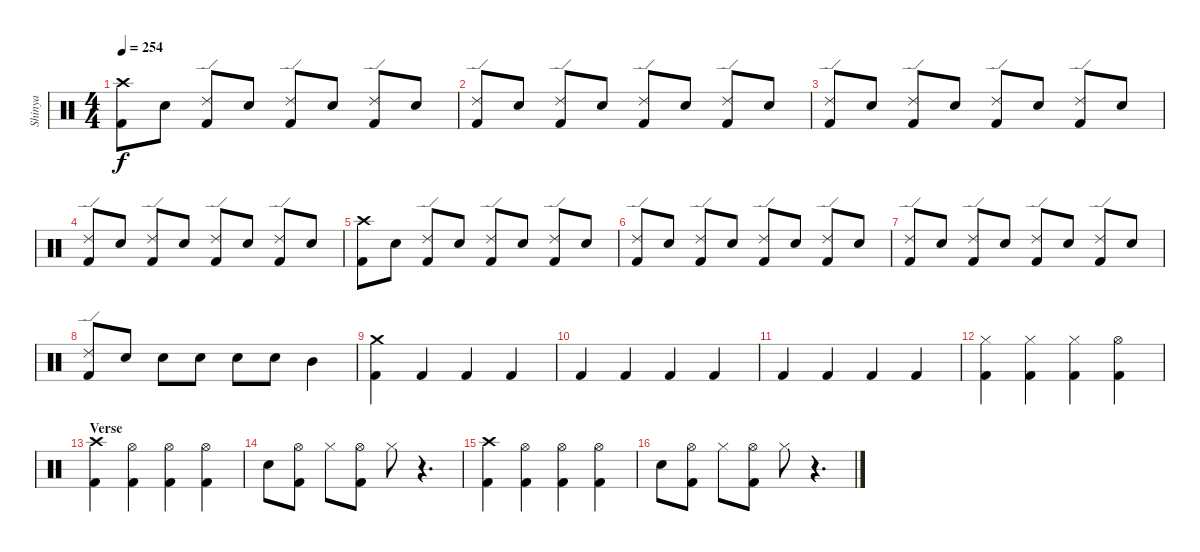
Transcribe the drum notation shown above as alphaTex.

\track ("Shinya" "Shinya") {instrument percussion}
\staff {score}
\articulation defaults
\ts (4 4)
\tempo 254
\clef neutral
\ks c
("Crash high (hit)" "Kick (hit) 2").8{dy f} "Electric Snare (hit)".8 ("Ride (edge) 2" "Kick (hit) 2").8 "Electric Snare (hit)".8 ("Ride (edge) 2" "Kick (hit) 2").8 "Electric Snare (hit)".8 ("Ride (edge) 2" "Kick (hit) 2").8 "Electric Snare (hit)".8 |
("Ride (edge) 2" "Kick (hit) 2").8 "Electric Snare (hit)".8 ("Ride (edge) 2" "Kick (hit) 2").8 "Electric Snare (hit)".8 ("Ride (edge) 2" "Kick (hit) 2").8 "Electric Snare (hit)".8 ("Kick (hit) 2" "Ride (edge) 2").8 "Electric Snare (hit)".8 |
("Ride (edge) 2" "Kick (hit) 2").8 "Electric Snare (hit)".8 ("Kick (hit) 2" "Ride (edge) 2").8 "Electric Snare (hit)".8 ("Ride (edge) 2" "Kick (hit) 2").8 "Electric Snare (hit)".8 ("Ride (edge) 2" "Kick (hit) 2").8 "Electric Snare (hit)".8 |
("Ride (edge) 2" "Kick (hit) 2").8 "Electric Snare (hit)".8 ("Kick (hit) 2" "Ride (edge) 2").8 "Electric Snare (hit)".8 ("Ride (edge) 2" "Kick (hit) 2").8 "Electric Snare (hit)".8 ("Ride (edge) 2" "Kick (hit) 2").8 "Electric Snare (hit)".8 |
("Crash high (hit)" "Kick (hit) 2").8 "Electric Snare (hit)".8 ("Ride (edge) 2" "Kick (hit) 2").8 "Electric Snare (hit)".8 ("Ride (edge) 2" "Kick (hit) 2").8 "Electric Snare (hit)".8 ("Ride (edge) 2" "Kick (hit) 2").8 "Electric Snare (hit)".8 |
("Ride (edge) 2" "Kick (hit) 2").8 "Electric Snare (hit)".8 ("Ride (edge) 2" "Kick (hit) 2").8 "Electric Snare (hit)".8 ("Ride (edge) 2" "Kick (hit) 2").8 "Electric Snare (hit)".8 ("Ride (edge) 2" "Kick (hit) 2").8 "Electric Snare (hit)".8 |
("Kick (hit) 2" "Ride (edge) 2").8 "Electric Snare (hit)".8 ("Kick (hit) 2" "Ride (edge) 2").8 "Electric Snare (hit)".8 ("Ride (edge) 2" "Kick (hit) 2").8 "Electric Snare (hit)".8 ("Kick (hit) 2" "Ride (edge) 2").8 "Electric Snare (hit)".8 |
("Kick (hit) 2" "Ride (edge) 2").8 "Electric Snare (hit)".8 "Electric Snare (hit)".8 "Electric Snare (hit)".8 "Electric Snare (hit)".8 "Electric Snare (hit)".8 "Mid Tom (hit)".4 |
("Kick (hit) 2" "Crash medium (hit)").4 "Kick (hit) 2".4 "Kick (hit) 2".4 "Kick (hit) 2".4 |
"Kick (hit) 2".4 "Kick (hit) 2".4 "Kick (hit) 2".4 "Kick (hit) 2".4 |
"Kick (hit) 2".4 "Kick (hit) 2".4 "Kick (hit) 2".4 "Kick (hit) 2".4 |
("Kick (hit) 2" "Hi-Hat (closed)").4 ("Hi-Hat (closed)" "Kick (hit) 2").4 ("Hi-Hat (closed)" "Kick (hit) 2").4 ("Hi-Hat (open)" "Kick (hit) 2").4 |
\section ("" "Verse")
("Kick (hit) 2" "Crash high (hit)").4 ("Hi-Hat (open)" "Kick (hit) 2").4 ("Hi-Hat (open)" "Kick (hit) 2").4 ("Hi-Hat (open)" "Kick (hit) 2").4 |
"Electric Snare (hit)".8 ("Hi-Hat (open)" "Kick (hit) 2").8 "Hi-Hat (closed)".8 ("Hi-Hat (open)" "Kick (hit) 2").8 "Hi-Hat (closed)".8 r.4{d} |
("Kick (hit) 2" "Crash high (hit)").4 ("Hi-Hat (open)" "Kick (hit) 2").4 ("Hi-Hat (open)" "Kick (hit) 2").4 ("Hi-Hat (open)" "Kick (hit) 2").4 |
"Electric Snare (hit)".8 ("Hi-Hat (open)" "Kick (hit) 2").8 "Hi-Hat (closed)".8 ("Hi-Hat (open)" "Kick (hit) 2").8 "Hi-Hat (closed)".8 r.4{d}
